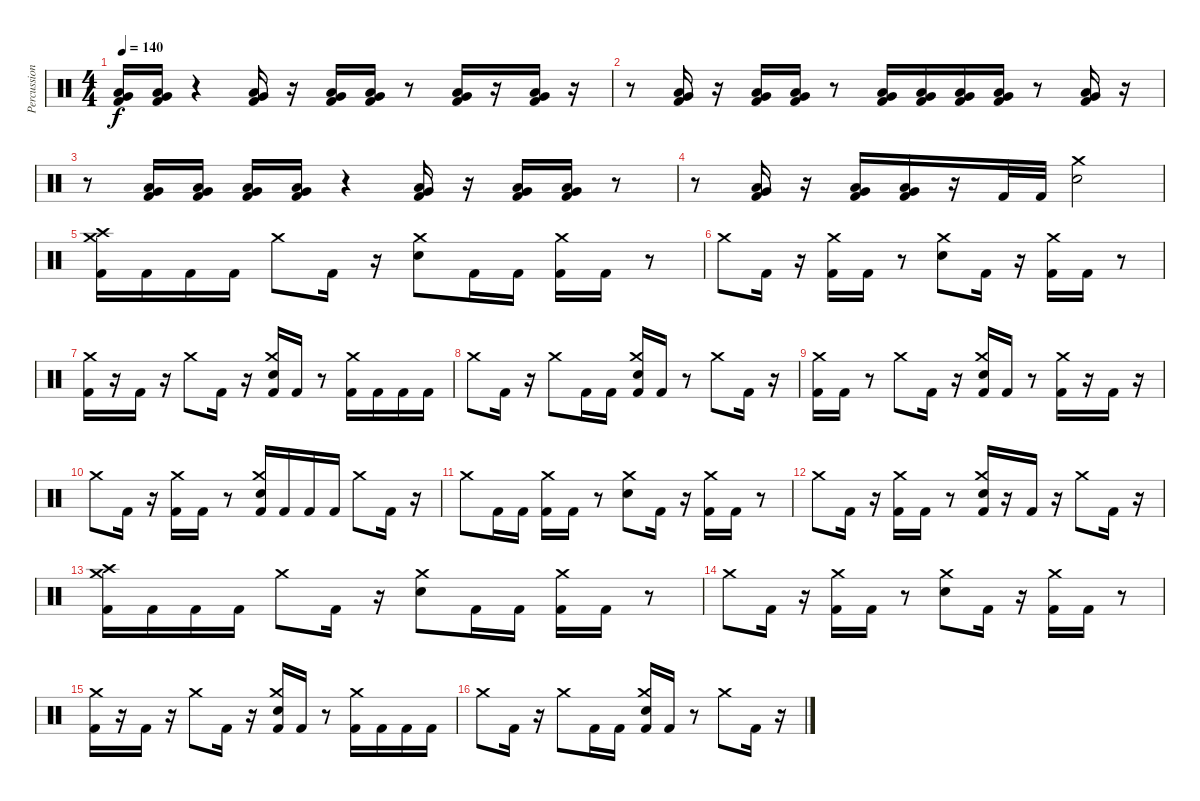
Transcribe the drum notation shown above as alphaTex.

\track ("Percussion" "Percussion") {instrument percussion}
\staff {score}
\articulation defaults
\ts (4 4)
\tempo 140
\clef neutral
\ks c
("Low Floor Tom (hit)" "Very Low Tom (hit)" "Kick (hit) 2").16{dy f} ("Low Floor Tom (hit)" "Very Low Tom (hit)" "Kick (hit) 2").16 r.4 ("Low Floor Tom (hit)" "Very Low Tom (hit)" "Kick (hit) 2").16 r.16 ("Low Floor Tom (hit)" "Very Low Tom (hit)" "Kick (hit) 2").16 ("Low Floor Tom (hit)" "Very Low Tom (hit)" "Kick (hit) 2").16 r.8 ("Low Floor Tom (hit)" "Very Low Tom (hit)" "Kick (hit) 2").16 r.16 ("Low Floor Tom (hit)" "Very Low Tom (hit)" "Kick (hit) 2").16 r.16 |
r.8 ("Low Floor Tom (hit)" "Very Low Tom (hit)" "Kick (hit) 2").16 r.16 ("Low Floor Tom (hit)" "Very Low Tom (hit)" "Kick (hit) 2").16 ("Low Floor Tom (hit)" "Very Low Tom (hit)" "Kick (hit) 2").16 r.8 ("Low Floor Tom (hit)" "Very Low Tom (hit)" "Kick (hit) 2").16 ("Low Floor Tom (hit)" "Very Low Tom (hit)" "Kick (hit) 2").16 ("Low Floor Tom (hit)" "Very Low Tom (hit)" "Kick (hit) 2").16 ("Low Floor Tom (hit)" "Very Low Tom (hit)" "Kick (hit) 2").16 r.8 ("Low Floor Tom (hit)" "Very Low Tom (hit)" "Kick (hit) 2").16 r.16 |
r.8 ("Low Floor Tom (hit)" "Very Low Tom (hit)" "Kick (hit) 2").16 ("Low Floor Tom (hit)" "Very Low Tom (hit)" "Kick (hit) 2").16 ("Low Floor Tom (hit)" "Very Low Tom (hit)" "Kick (hit) 2").16 ("Low Floor Tom (hit)" "Very Low Tom (hit)" "Kick (hit) 2").16 r.4 ("Low Floor Tom (hit)" "Very Low Tom (hit)" "Kick (hit) 2").16 r.16 ("Low Floor Tom (hit)" "Very Low Tom (hit)" "Kick (hit) 2").16 ("Low Floor Tom (hit)" "Very Low Tom (hit)" "Kick (hit) 2").16 r.8 |
r.8 ("Low Floor Tom (hit)" "Very Low Tom (hit)" "Kick (hit) 2").16 r.16 ("Low Floor Tom (hit)" "Very Low Tom (hit)" "Kick (hit) 2").16 ("Low Floor Tom (hit)" "Very Low Tom (hit)" "Kick (hit) 2").16 r.16 "Kick (hit) 2".32 "Kick (hit) 2".32 ("Crash medium (hit)" "Snare (hit) 2").2 |
("Crash medium (hit)" "Crash high (hit)" "Kick (hit) 2").16 "Kick (hit) 2".16 "Kick (hit) 2".16 "Kick (hit) 2".16 "Crash medium (hit)".8 "Kick (hit) 2".16 r.16 ("Crash medium (hit)" "Snare (hit) 2").8 "Kick (hit) 2".16 "Kick (hit) 2".16 ("Crash medium (hit)" "Kick (hit) 2").16 "Kick (hit) 2".16 r.8 |
"Crash medium (hit)".8 "Kick (hit) 2".16 r.16 ("Crash medium (hit)" "Kick (hit) 2").16 "Kick (hit) 2".16 r.8 ("Crash medium (hit)" "Snare (hit) 2").8 "Kick (hit) 2".16 r.16 ("Crash medium (hit)" "Kick (hit) 2").16 "Kick (hit) 2".16 r.8 |
("Crash medium (hit)" "Kick (hit) 2").16 r.16 "Kick (hit) 2".16 r.16 "Crash medium (hit)".8 "Kick (hit) 2".16 r.16 ("Crash medium (hit)" "Snare (hit) 2" "Kick (hit) 2").16 "Kick (hit) 2".16 r.8 ("Crash medium (hit)" "Kick (hit) 2").16 "Kick (hit) 2".16 "Kick (hit) 2".16 "Kick (hit) 2".16 |
"Crash medium (hit)".8 "Kick (hit) 2".16 r.16 "Crash medium (hit)".8 "Kick (hit) 2".16 "Kick (hit) 2".16 ("Crash medium (hit)" "Snare (hit) 2" "Kick (hit) 2").16 "Kick (hit) 2".16 r.8 "Crash medium (hit)".8 "Kick (hit) 2".16 r.16 |
("Crash medium (hit)" "Kick (hit) 2").16 "Kick (hit) 2".16 r.8 "Crash medium (hit)".8 "Kick (hit) 2".16 r.16 ("Crash medium (hit)" "Snare (hit) 2" "Kick (hit) 2").16 "Kick (hit) 2".16 r.8 ("Crash medium (hit)" "Kick (hit) 2").16 r.16 "Kick (hit) 2".16 r.16 |
"Crash medium (hit)".8 "Kick (hit) 2".16 r.16 ("Crash medium (hit)" "Kick (hit) 2").16 "Kick (hit) 2".16 r.8 ("Crash medium (hit)" "Snare (hit) 2" "Kick (hit) 2").16 "Kick (hit) 2".16 "Kick (hit) 2".16 "Kick (hit) 2".16 "Crash medium (hit)".8 "Kick (hit) 2".16 r.16 |
"Crash medium (hit)".8 "Kick (hit) 2".16 "Kick (hit) 2".16 ("Crash medium (hit)" "Kick (hit) 2").16 "Kick (hit) 2".16 r.8 ("Crash medium (hit)" "Snare (hit) 2").8 "Kick (hit) 2".16 r.16 ("Crash medium (hit)" "Kick (hit) 2").16 "Kick (hit) 2".16 r.8 |
"Crash medium (hit)".8 "Kick (hit) 2".16 r.16 ("Crash medium (hit)" "Kick (hit) 2").16 "Kick (hit) 2".16 r.8 ("Crash medium (hit)" "Snare (hit) 2" "Kick (hit) 2").16 r.16 "Kick (hit) 2".16 r.16 "Crash medium (hit)".8 "Kick (hit) 2".16 r.16 |
("Crash medium (hit)" "Crash high (hit)" "Kick (hit) 2").16 "Kick (hit) 2".16 "Kick (hit) 2".16 "Kick (hit) 2".16 "Crash medium (hit)".8 "Kick (hit) 2".16 r.16 ("Crash medium (hit)" "Snare (hit) 2").8 "Kick (hit) 2".16 "Kick (hit) 2".16 ("Crash medium (hit)" "Kick (hit) 2").16 "Kick (hit) 2".16 r.8 |
"Crash medium (hit)".8 "Kick (hit) 2".16 r.16 ("Crash medium (hit)" "Kick (hit) 2").16 "Kick (hit) 2".16 r.8 ("Crash medium (hit)" "Snare (hit) 2").8 "Kick (hit) 2".16 r.16 ("Crash medium (hit)" "Kick (hit) 2").16 "Kick (hit) 2".16 r.8 |
("Crash medium (hit)" "Kick (hit) 2").16 r.16 "Kick (hit) 2".16 r.16 "Crash medium (hit)".8 "Kick (hit) 2".16 r.16 ("Crash medium (hit)" "Snare (hit) 2" "Kick (hit) 2").16 "Kick (hit) 2".16 r.8 ("Crash medium (hit)" "Kick (hit) 2").16 "Kick (hit) 2".16 "Kick (hit) 2".16 "Kick (hit) 2".16 |
"Crash medium (hit)".8 "Kick (hit) 2".16 r.16 "Crash medium (hit)".8 "Kick (hit) 2".16 "Kick (hit) 2".16 ("Crash medium (hit)" "Snare (hit) 2" "Kick (hit) 2").16 "Kick (hit) 2".16 r.8 "Crash medium (hit)".8 "Kick (hit) 2".16 r.16
